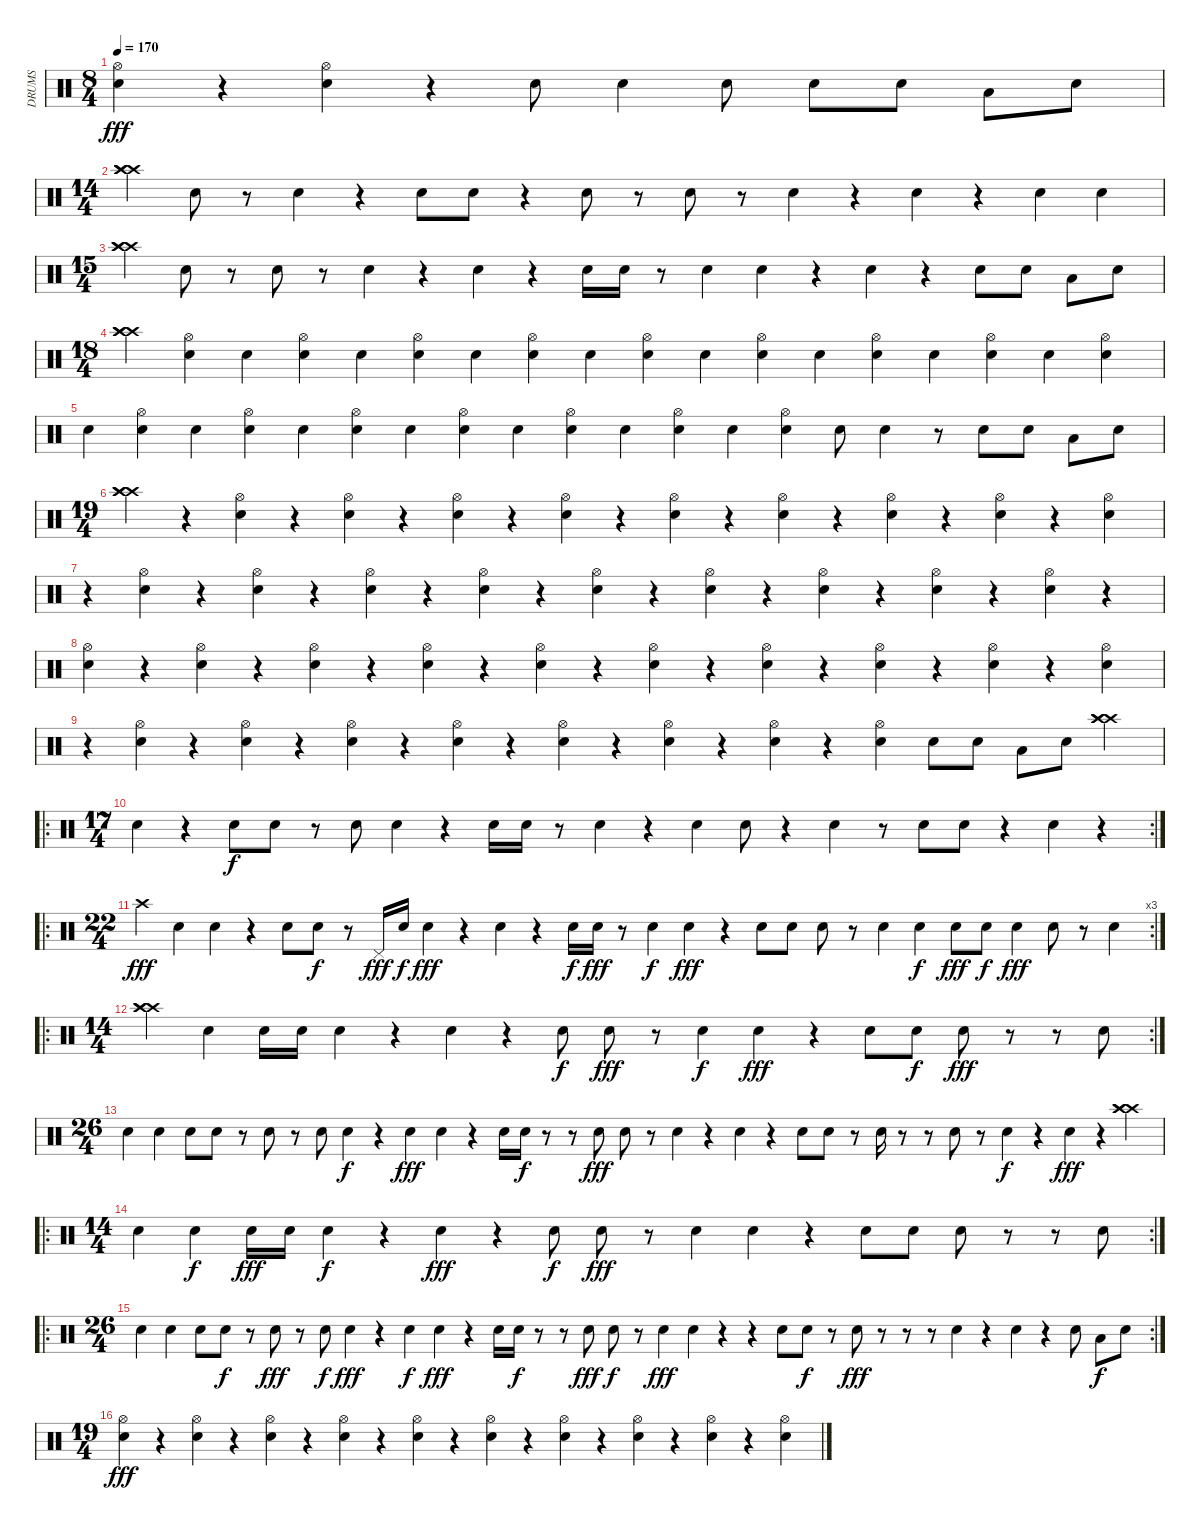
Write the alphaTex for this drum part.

\track ("DRUMS" "DRUMS") {instrument percussion}
\staff {score}
\articulation defaults
\ts (8 4)
\tempo 170
\clef neutral
\ks c
("Hi-Hat (open)" "Electric Snare (hit)").4{dy fff} r.4 ("Hi-Hat (open)" "Electric Snare (hit)").4 r.4 "Electric Snare (hit)".8 "Electric Snare (hit)".4 "Electric Snare (hit)".8 "Electric Snare (hit)".8 "Electric Snare (hit)".8 "Low Tom (hit)".8 "Electric Snare (hit)".8 |
\ts (14 4)
("Crash high (hit)" "Crash high (hit)" "Crash high (hit)").4 "Electric Snare (hit)".8 r.8 "Electric Snare (hit)".4 r.4 "Electric Snare (hit)".8 "Electric Snare (hit)".8 r.4 "Electric Snare (hit)".8 r.8 "Electric Snare (hit)".8 r.8 "Electric Snare (hit)".4 r.4 "Electric Snare (hit)".4 r.4 "Electric Snare (hit)".4 "Electric Snare (hit)".4 |
\ts (15 4)
("Crash high (hit)" "Crash high (hit)" "Crash high (hit)").4 "Electric Snare (hit)".8 r.8 "Electric Snare (hit)".8 r.8 "Electric Snare (hit)".4 r.4 "Electric Snare (hit)".4 r.4 "Electric Snare (hit)".16 "Electric Snare (hit)".16 r.8 "Electric Snare (hit)".4 "Electric Snare (hit)".4 r.4 "Electric Snare (hit)".4 r.4 "Electric Snare (hit)".8 "Electric Snare (hit)".8 "Low Tom (hit)".8 "Electric Snare (hit)".8 |
\ts (18 4)
("Crash high (hit)" "Crash high (hit)" "Crash high (hit)").4 ("Hi-Hat (open)" "Electric Snare (hit)").4 "Electric Snare (hit)".4 ("Hi-Hat (open)" "Electric Snare (hit)").4 "Electric Snare (hit)".4 ("Hi-Hat (open)" "Electric Snare (hit)").4 "Electric Snare (hit)".4 ("Hi-Hat (open)" "Electric Snare (hit)").4 "Electric Snare (hit)".4 ("Hi-Hat (open)" "Electric Snare (hit)").4 "Electric Snare (hit)".4 ("Hi-Hat (open)" "Electric Snare (hit)").4 "Electric Snare (hit)".4 ("Hi-Hat (open)" "Electric Snare (hit)").4 "Electric Snare (hit)".4 ("Hi-Hat (open)" "Electric Snare (hit)").4 "Electric Snare (hit)".4 ("Hi-Hat (open)" "Electric Snare (hit)").4 |
"Electric Snare (hit)".4 ("Hi-Hat (open)" "Electric Snare (hit)").4 "Electric Snare (hit)".4 ("Hi-Hat (open)" "Electric Snare (hit)").4 "Electric Snare (hit)".4 ("Hi-Hat (open)" "Electric Snare (hit)").4 "Electric Snare (hit)".4 ("Hi-Hat (open)" "Electric Snare (hit)").4 "Electric Snare (hit)".4 ("Hi-Hat (open)" "Electric Snare (hit)").4 "Electric Snare (hit)".4 ("Hi-Hat (open)" "Electric Snare (hit)").4 "Electric Snare (hit)".4 ("Hi-Hat (open)" "Electric Snare (hit)").4 "Electric Snare (hit)".8 "Electric Snare (hit)".4 r.8 "Electric Snare (hit)".8 "Electric Snare (hit)".8 "Low Tom (hit)".8 "Electric Snare (hit)".8 |
\ts (19 4)
("Crash high (hit)" "Crash high (hit)" "Crash high (hit)").4 r.4 ("Hi-Hat (open)" "Electric Snare (hit)").4 r.4 ("Hi-Hat (open)" "Electric Snare (hit)").4 r.4 ("Hi-Hat (open)" "Electric Snare (hit)").4 r.4 ("Hi-Hat (open)" "Electric Snare (hit)").4 r.4 ("Hi-Hat (open)" "Electric Snare (hit)").4 r.4 ("Hi-Hat (open)" "Electric Snare (hit)").4 r.4 ("Hi-Hat (open)" "Electric Snare (hit)").4 r.4 ("Hi-Hat (open)" "Electric Snare (hit)").4 r.4 ("Hi-Hat (open)" "Electric Snare (hit)").4 |
r.4 ("Hi-Hat (open)" "Electric Snare (hit)").4 r.4 ("Hi-Hat (open)" "Electric Snare (hit)").4 r.4 ("Hi-Hat (open)" "Electric Snare (hit)").4 r.4 ("Hi-Hat (open)" "Electric Snare (hit)").4 r.4 ("Hi-Hat (open)" "Electric Snare (hit)").4 r.4 ("Hi-Hat (open)" "Electric Snare (hit)").4 r.4 ("Hi-Hat (open)" "Electric Snare (hit)").4 r.4 ("Hi-Hat (open)" "Electric Snare (hit)").4 r.4 ("Hi-Hat (open)" "Electric Snare (hit)").4 r.4 |
("Hi-Hat (open)" "Electric Snare (hit)").4 r.4 ("Hi-Hat (open)" "Electric Snare (hit)").4 r.4 ("Hi-Hat (open)" "Electric Snare (hit)").4 r.4 ("Hi-Hat (open)" "Electric Snare (hit)").4 r.4 ("Hi-Hat (open)" "Electric Snare (hit)").4 r.4 ("Hi-Hat (open)" "Electric Snare (hit)").4 r.4 ("Hi-Hat (open)" "Electric Snare (hit)").4 r.4 ("Hi-Hat (open)" "Electric Snare (hit)").4 r.4 ("Hi-Hat (open)" "Electric Snare (hit)").4 r.4 ("Hi-Hat (open)" "Electric Snare (hit)").4 |
r.4 ("Hi-Hat (open)" "Electric Snare (hit)").4 r.4 ("Hi-Hat (open)" "Electric Snare (hit)").4 r.4 ("Hi-Hat (open)" "Electric Snare (hit)").4 r.4 ("Hi-Hat (open)" "Electric Snare (hit)").4 r.4 ("Hi-Hat (open)" "Electric Snare (hit)").4 r.4 ("Hi-Hat (open)" "Electric Snare (hit)").4 r.4 ("Hi-Hat (open)" "Electric Snare (hit)").4 r.4 ("Hi-Hat (open)" "Electric Snare (hit)").4 "Electric Snare (hit)".8 "Electric Snare (hit)".8 "Low Tom (hit)".8 "Electric Snare (hit)".8 ("Crash high (hit)" "Crash high (hit)" "Crash high (hit)").4 |
\ro
\rc 2
\ts (17 4)
"Electric Snare (hit)".4 r.4 "Electric Snare (hit)".8{dy f} "Electric Snare (hit)".8 r.8 "Electric Snare (hit)".8 "Electric Snare (hit)".4 r.4 "Electric Snare (hit)".16 "Electric Snare (hit)".16 r.8 "Electric Snare (hit)".4 r.4 "Electric Snare (hit)".4 "Electric Snare (hit)".8 r.4 "Electric Snare (hit)".4 r.8 "Electric Snare (hit)".8 "Electric Snare (hit)".8 r.4 "Electric Snare (hit)".4 r.4 |
\ro
\rc 3
\ts (22 4)
"Crash high (hit)".4{dy fff} "Electric Snare (hit)".4 "Electric Snare (hit)".4 r.4 "Electric Snare (hit)".8 "Electric Snare (hit)".8{dy f} r.8 "Pedal Hi-Hat (hit)".16{dy fff} "Electric Snare (hit)".16{dy f} "Electric Snare (hit)".4{dy fff} r.4 "Electric Snare (hit)".4 r.4 "Electric Snare (hit)".16{dy f} "Electric Snare (hit)".16{dy fff} r.8 "Electric Snare (hit)".4{dy f} "Electric Snare (hit)".4{dy fff} r.4 "Electric Snare (hit)".8 "Electric Snare (hit)".8 "Electric Snare (hit)".8 r.8 "Electric Snare (hit)".4 "Electric Snare (hit)".4{dy f} "Electric Snare (hit)".8{dy fff} "Electric Snare (hit)".8{dy f} "Electric Snare (hit)".4{dy fff} "Electric Snare (hit)".8 r.8 "Electric Snare (hit)".4 |
\ro
\rc 2
\ts (14 4)
("Crash high (hit)" "Crash high (hit)" "Crash high (hit)").4 "Electric Snare (hit)".4 "Electric Snare (hit)".16 "Electric Snare (hit)".16 "Electric Snare (hit)".4 r.4 "Electric Snare (hit)".4 r.4 "Electric Snare (hit)".8{dy f} "Electric Snare (hit)".8{dy fff} r.8 "Electric Snare (hit)".4{dy f} "Electric Snare (hit)".4{dy fff} r.4 "Electric Snare (hit)".8 "Electric Snare (hit)".8{dy f} "Electric Snare (hit)".8{dy fff} r.8 r.8 "Electric Snare (hit)".8 |
\ts (26 4)
"Electric Snare (hit)".4 "Electric Snare (hit)".4 "Electric Snare (hit)".8 "Electric Snare (hit)".8 r.8 "Electric Snare (hit)".8 r.8 "Electric Snare (hit)".8 "Electric Snare (hit)".4{dy f} r.4 "Electric Snare (hit)".4{dy fff} "Electric Snare (hit)".4 r.4 "Electric Snare (hit)".16 "Electric Snare (hit)".16{dy f} r.8 r.8 "Electric Snare (hit)".8{dy fff} "Electric Snare (hit)".8 r.8 "Electric Snare (hit)".4 r.4 "Electric Snare (hit)".4 r.4 "Electric Snare (hit)".8 "Electric Snare (hit)".8 r.8 "Electric Snare (hit)".16 r.8 r.8 "Electric Snare (hit)".8 r.8 "Electric Snare (hit)".4{dy f} r.4 "Electric Snare (hit)".4{dy fff} r.4 ("Crash high (hit)" "Crash high (hit)" "Crash high (hit)").4 |
\ro
\rc 2
\ts (14 4)
"Electric Snare (hit)".4 "Electric Snare (hit)".4{dy f} "Electric Snare (hit)".16{dy fff} "Electric Snare (hit)".16 "Electric Snare (hit)".4{dy f} r.4 "Electric Snare (hit)".4{dy fff} r.4 "Electric Snare (hit)".8{dy f} "Electric Snare (hit)".8{dy fff} r.8 "Electric Snare (hit)".4 "Electric Snare (hit)".4 r.4 "Electric Snare (hit)".8 "Electric Snare (hit)".8 "Electric Snare (hit)".8 r.8 r.8 "Electric Snare (hit)".8 |
\ro
\rc 2
\ts (26 4)
"Electric Snare (hit)".4 "Electric Snare (hit)".4 "Electric Snare (hit)".8 "Electric Snare (hit)".8{dy f} r.8 "Electric Snare (hit)".8{dy fff} r.8 "Electric Snare (hit)".8{dy f} "Electric Snare (hit)".4{dy fff} r.4 "Electric Snare (hit)".4{dy f} "Electric Snare (hit)".4{dy fff} r.4 "Electric Snare (hit)".16 "Electric Snare (hit)".16{dy f} r.8 r.8 "Electric Snare (hit)".8{dy fff} "Electric Snare (hit)".8{dy f} r.8 "Electric Snare (hit)".4{dy fff} "Electric Snare (hit)".4 r.4 r.4 "Electric Snare (hit)".8 "Electric Snare (hit)".8{dy f} r.8 "Electric Snare (hit)".8{dy fff} r.8 r.8 r.8 "Electric Snare (hit)".4 r.4 "Electric Snare (hit)".4 r.4 "Electric Snare (hit)".8 "Low Tom (hit)".8{dy f} "Electric Snare (hit)".8 |
\ts (19 4)
("Hi-Hat (open)" "Electric Snare (hit)").4{dy fff} r.4 ("Hi-Hat (open)" "Electric Snare (hit)").4 r.4 ("Hi-Hat (open)" "Electric Snare (hit)").4 r.4 ("Hi-Hat (open)" "Electric Snare (hit)").4 r.4 ("Hi-Hat (open)" "Electric Snare (hit)").4 r.4 ("Hi-Hat (open)" "Electric Snare (hit)").4 r.4 ("Hi-Hat (open)" "Electric Snare (hit)").4 r.4 ("Hi-Hat (open)" "Electric Snare (hit)").4 r.4 ("Hi-Hat (open)" "Electric Snare (hit)").4 r.4 ("Hi-Hat (open)" "Electric Snare (hit)").4
